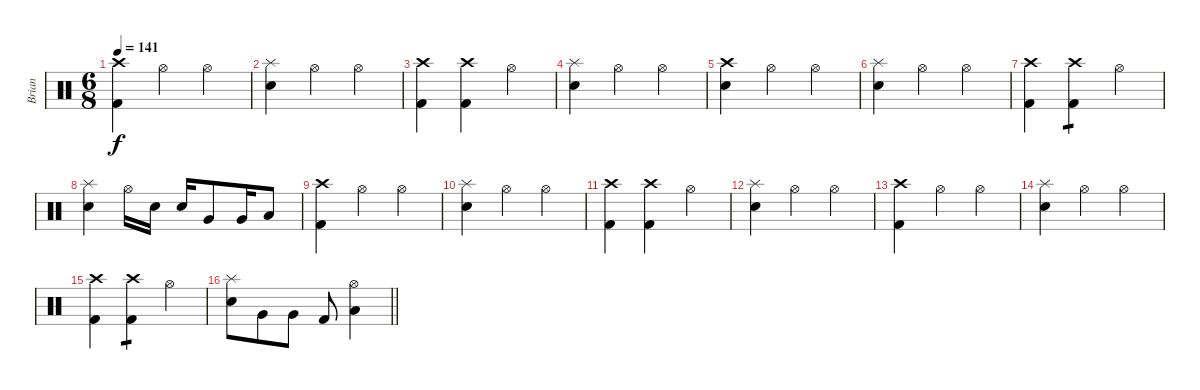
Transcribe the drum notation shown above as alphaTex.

\track ("Brian" "Brian") {instrument percussion}
\staff {score}
\articulation defaults
\ts (6 8)
\tempo 141
\clef neutral
\ks c
("Crash high (hit)" "Kick (hit) 2").4{dy f} "Hi-Hat (open)".4 "Hi-Hat (open)".4 |
("Splash (hit)" "Electric Snare (hit)").4 "Hi-Hat (open)".4 "Hi-Hat (open)".4 |
("Crash high (hit)" "Kick (hit) 2").4 ("Crash high (hit)" "Kick (hit) 2").4 "Hi-Hat (open)".4 |
("Splash (hit)" "Electric Snare (hit)").4 "Hi-Hat (open)".4 "Hi-Hat (open)".4 |
("Crash high (hit)" "Electric Snare (hit)").4 "Hi-Hat (open)".4 "Hi-Hat (open)".4 |
("Splash (hit)" "Electric Snare (hit)").4 "Hi-Hat (open)".4 "Hi-Hat (open)".4 |
("Crash high (hit)" "Kick (hit) 2").4 ("Crash high (hit)" "Kick (hit) 2").4{tp 1} "Hi-Hat (open)".4 |
("Splash (hit)" "Electric Snare (hit)").4 "Hi-Hat (open)".16 "Electric Snare (hit)".16 "Electric Snare (hit)".16 "Very Low Tom (hit)".8 "Very Low Tom (hit)".16 "Low Floor Tom (hit)".8 |
("Crash high (hit)" "Kick (hit) 2").4 "Hi-Hat (open)".4 "Hi-Hat (open)".4 |
("Splash (hit)" "Electric Snare (hit)").4 "Hi-Hat (open)".4 "Hi-Hat (open)".4 |
("Crash high (hit)" "Kick (hit) 2").4 ("Crash high (hit)" "Kick (hit) 2").4 "Hi-Hat (open)".4 |
("Splash (hit)" "Electric Snare (hit)").4 "Hi-Hat (open)".4 "Hi-Hat (open)".4 |
("Crash high (hit)" "Kick (hit) 2").4 "Hi-Hat (open)".4 "Hi-Hat (open)".4 |
("Splash (hit)" "Electric Snare (hit)").4 "Hi-Hat (open)".4 "Hi-Hat (open)".4 |
("Crash high (hit)" "Kick (hit) 2").4 ("Crash high (hit)" "Kick (hit) 2").4{tp 1} "Hi-Hat (open)".4 |
\barLineRight lightlight
("Splash (hit)" "Electric Snare (hit)").8 "Very Low Tom (hit)".8 "Very Low Tom (hit)".8 "Kick (hit) 2".8 ("Hi-Hat (open)" "Low Floor Tom (hit)").4
